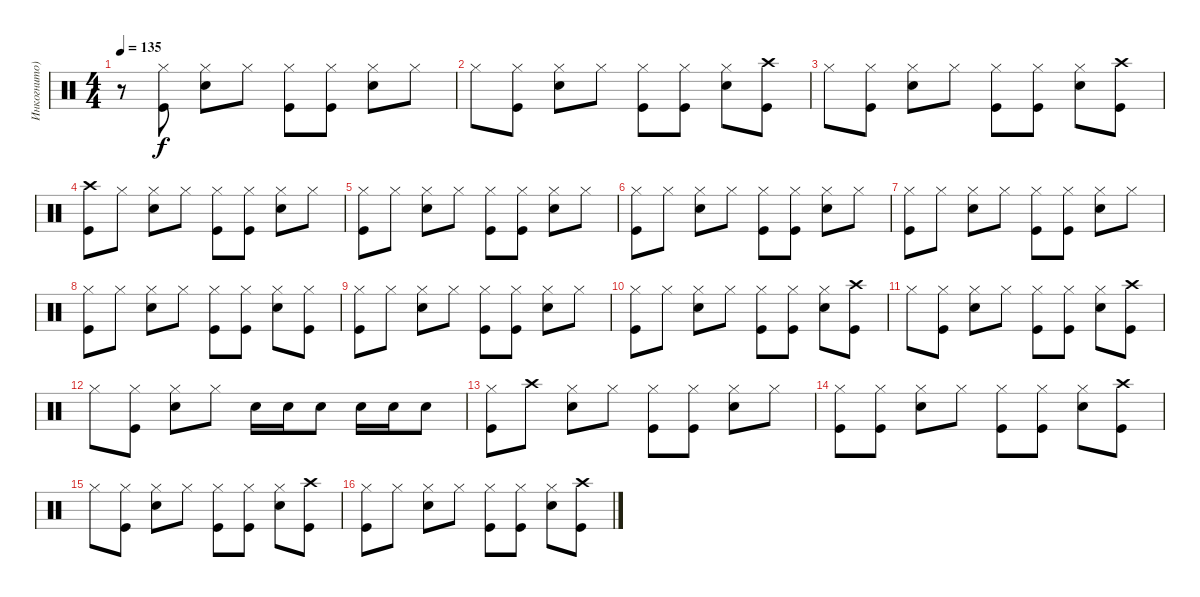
\track ("Инкогнито)" "Инкогнито)") {instrument percussion}
\staff {score}
\articulation defaults
\ts (4 4)
\tempo 135
\clef neutral
\ks c
r.8{dy f} ("Hi-Hat (closed)" "Kick (hit)").8 ("Hi-Hat (closed)" "Snare (hit) 2").8 "Hi-Hat (closed)".8 ("Hi-Hat (closed)" "Kick (hit)").8 ("Hi-Hat (closed)" "Kick (hit)").8 ("Hi-Hat (closed)" "Snare (hit) 2").8 "Hi-Hat (closed)".8 |
"Hi-Hat (closed)".8 ("Hi-Hat (closed)" "Kick (hit)").8 ("Hi-Hat (closed)" "Snare (hit) 2").8 "Hi-Hat (closed)".8 ("Hi-Hat (closed)" "Kick (hit)").8 ("Hi-Hat (closed)" "Kick (hit)").8 ("Hi-Hat (closed)" "Snare (hit) 2").8 ("Crash high (hit)" "Kick (hit)").8 |
"Hi-Hat (closed)".8 ("Hi-Hat (closed)" "Kick (hit)").8 ("Hi-Hat (closed)" "Snare (hit) 2").8 "Hi-Hat (closed)".8 ("Hi-Hat (closed)" "Kick (hit)").8 ("Hi-Hat (closed)" "Kick (hit)").8 ("Hi-Hat (closed)" "Snare (hit) 2").8 ("Crash high (hit)" "Kick (hit)").8 |
("Crash high (hit)" "Kick (hit)").8 "Hi-Hat (closed)".8 ("Hi-Hat (closed)" "Snare (hit) 2").8 "Hi-Hat (closed)".8 ("Hi-Hat (closed)" "Kick (hit)").8 ("Hi-Hat (closed)" "Kick (hit)").8 ("Hi-Hat (closed)" "Snare (hit) 2").8 "Hi-Hat (closed)".8 |
("Hi-Hat (closed)" "Kick (hit)").8 "Hi-Hat (closed)".8 ("Hi-Hat (closed)" "Snare (hit) 2").8 "Hi-Hat (closed)".8 ("Hi-Hat (closed)" "Kick (hit)").8 ("Hi-Hat (closed)" "Kick (hit)").8 ("Hi-Hat (closed)" "Snare (hit) 2").8 "Hi-Hat (closed)".8 |
("Hi-Hat (closed)" "Kick (hit)").8 "Hi-Hat (closed)".8 ("Hi-Hat (closed)" "Snare (hit) 2").8 "Hi-Hat (closed)".8 ("Hi-Hat (closed)" "Kick (hit)").8 ("Hi-Hat (closed)" "Kick (hit)").8 ("Hi-Hat (closed)" "Snare (hit) 2").8 "Hi-Hat (closed)".8 |
("Hi-Hat (closed)" "Kick (hit)").8 "Hi-Hat (closed)".8 ("Hi-Hat (closed)" "Snare (hit) 2").8 "Hi-Hat (closed)".8 ("Hi-Hat (closed)" "Kick (hit)").8 ("Hi-Hat (closed)" "Kick (hit)").8 ("Hi-Hat (closed)" "Snare (hit) 2").8 "Hi-Hat (closed)".8 |
("Hi-Hat (closed)" "Kick (hit)").8 "Hi-Hat (closed)".8 ("Hi-Hat (closed)" "Snare (hit) 2").8 "Hi-Hat (closed)".8 ("Hi-Hat (closed)" "Kick (hit)").8 ("Hi-Hat (closed)" "Kick (hit)").8 ("Hi-Hat (closed)" "Snare (hit) 2").8 ("Hi-Hat (closed)" "Kick (hit)").8 |
("Hi-Hat (closed)" "Kick (hit)").8 "Hi-Hat (closed)".8 ("Hi-Hat (closed)" "Snare (hit) 2").8 "Hi-Hat (closed)".8 ("Hi-Hat (closed)" "Kick (hit)").8 ("Hi-Hat (closed)" "Kick (hit)").8 ("Hi-Hat (closed)" "Snare (hit) 2").8 "Hi-Hat (closed)".8 |
("Hi-Hat (closed)" "Kick (hit)").8 "Hi-Hat (closed)".8 ("Hi-Hat (closed)" "Snare (hit) 2").8 "Hi-Hat (closed)".8 ("Hi-Hat (closed)" "Kick (hit)").8 ("Hi-Hat (closed)" "Kick (hit)").8 ("Hi-Hat (closed)" "Snare (hit) 2").8 ("Crash high (hit)" "Kick (hit)").8 |
"Hi-Hat (closed)".8 ("Hi-Hat (closed)" "Kick (hit)").8 ("Hi-Hat (closed)" "Snare (hit) 2").8 "Hi-Hat (closed)".8 ("Hi-Hat (closed)" "Kick (hit)").8 ("Hi-Hat (closed)" "Kick (hit)").8 ("Hi-Hat (closed)" "Snare (hit) 2").8 ("Crash high (hit)" "Kick (hit)").8 |
"Hi-Hat (closed)".8 ("Hi-Hat (closed)" "Kick (hit)").8 ("Hi-Hat (closed)" "Snare (hit) 2").8 "Hi-Hat (closed)".8 "Snare (hit) 2".16 "Snare (hit) 2".16 "Snare (hit) 2".8 "Snare (hit) 2".16 "Snare (hit) 2".16 "Snare (hit) 2".8 |
("Hi-Hat (closed)" "Kick (hit)").8 "Crash high (hit)".8 ("Hi-Hat (closed)" "Snare (hit) 2").8 "Hi-Hat (closed)".8 ("Hi-Hat (closed)" "Kick (hit)").8 ("Hi-Hat (closed)" "Kick (hit)").8 ("Hi-Hat (closed)" "Snare (hit) 2").8 "Hi-Hat (closed)".8 |
("Hi-Hat (closed)" "Kick (hit)").8 ("Hi-Hat (closed)" "Kick (hit)").8 ("Hi-Hat (closed)" "Snare (hit) 2").8 "Hi-Hat (closed)".8 ("Hi-Hat (closed)" "Kick (hit)").8 ("Hi-Hat (closed)" "Kick (hit)").8 ("Hi-Hat (closed)" "Snare (hit) 2").8 ("Crash high (hit)" "Kick (hit)").8 |
"Hi-Hat (closed)".8 ("Hi-Hat (closed)" "Kick (hit)").8 ("Hi-Hat (closed)" "Snare (hit) 2").8 "Hi-Hat (closed)".8 ("Hi-Hat (closed)" "Kick (hit)").8 ("Hi-Hat (closed)" "Kick (hit)").8 ("Hi-Hat (closed)" "Snare (hit) 2").8 ("Crash high (hit)" "Kick (hit)").8 |
("Hi-Hat (closed)" "Kick (hit)").8 "Hi-Hat (closed)".8 ("Hi-Hat (closed)" "Snare (hit) 2").8 "Hi-Hat (closed)".8 ("Hi-Hat (closed)" "Kick (hit)").8 ("Hi-Hat (closed)" "Kick (hit)").8 ("Hi-Hat (closed)" "Snare (hit) 2").8 ("Crash high (hit)" "Kick (hit)").8
